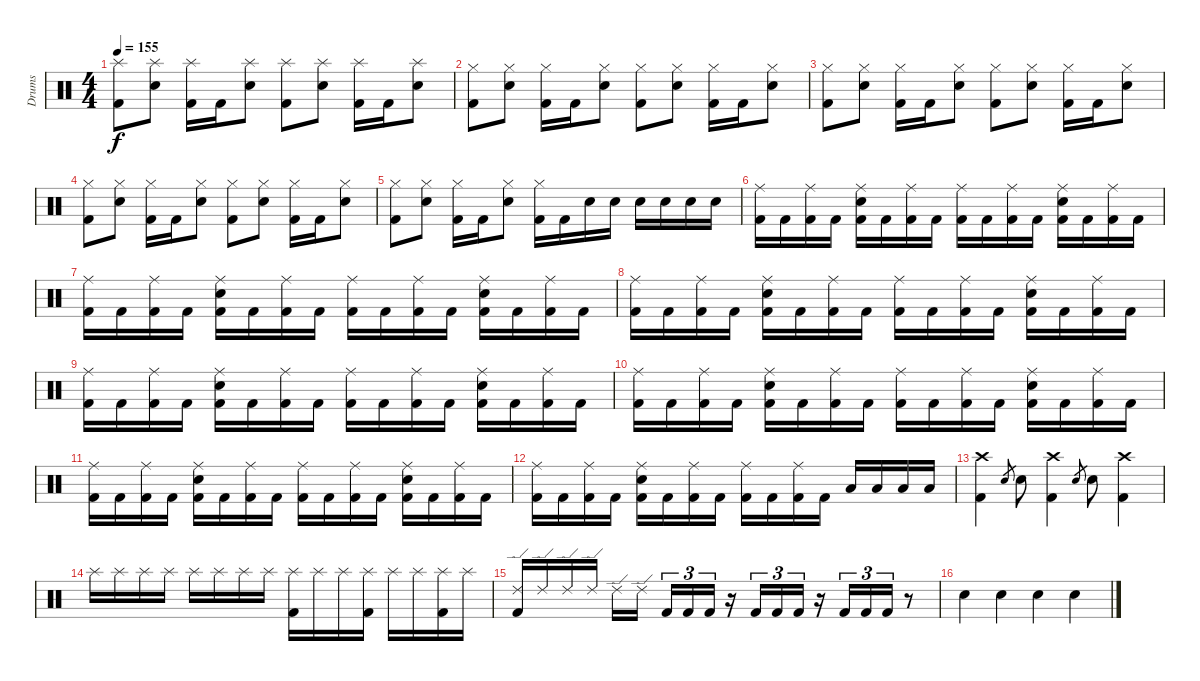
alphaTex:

\track ("Drums" "Drums") {instrument percussion}
\staff {score}
\articulation defaults
\ts (4 4)
\tempo 155
\clef neutral
\ks c
("Splash (hit)" "Kick (hit) 2").8{dy f} ("Splash (hit)" "Snare (hit) 2").8 ("Splash (hit)" "Kick (hit) 2").16 "Kick (hit) 2".16 ("Splash (hit)" "Snare (hit) 2").8 ("Splash (hit)" "Kick (hit) 2").8 ("Splash (hit)" "Snare (hit) 2").8 ("Splash (hit)" "Kick (hit) 2").16 "Kick (hit) 2".16 ("Splash (hit)" "Snare (hit) 2").8 |
("Hi-Hat (closed)" "Kick (hit) 2").8 ("Hi-Hat (closed)" "Snare (hit) 2").8 ("Hi-Hat (closed)" "Kick (hit) 2").16 "Kick (hit) 2".16 ("Hi-Hat (closed)" "Snare (hit) 2").8 ("Hi-Hat (closed)" "Kick (hit) 2").8 ("Hi-Hat (closed)" "Snare (hit) 2").8 ("Hi-Hat (closed)" "Kick (hit) 2").16 "Kick (hit) 2".16 ("Hi-Hat (closed)" "Snare (hit) 2").8 |
("Hi-Hat (closed)" "Kick (hit) 2").8 ("Hi-Hat (closed)" "Snare (hit) 2").8 ("Hi-Hat (closed)" "Kick (hit) 2").16 "Kick (hit) 2".16 ("Hi-Hat (closed)" "Snare (hit) 2").8 ("Hi-Hat (closed)" "Kick (hit) 2").8 ("Hi-Hat (closed)" "Snare (hit) 2").8 ("Hi-Hat (closed)" "Kick (hit) 2").16 "Kick (hit) 2".16 ("Hi-Hat (closed)" "Snare (hit) 2").8 |
("Hi-Hat (closed)" "Kick (hit) 2").8 ("Hi-Hat (closed)" "Snare (hit) 2").8 ("Hi-Hat (closed)" "Kick (hit) 2").16 "Kick (hit) 2".16 ("Hi-Hat (closed)" "Snare (hit) 2").8 ("Hi-Hat (closed)" "Kick (hit) 2").8 ("Hi-Hat (closed)" "Snare (hit) 2").8 ("Hi-Hat (closed)" "Kick (hit) 2").16 "Kick (hit) 2".16 ("Hi-Hat (closed)" "Snare (hit) 2").8 |
("Hi-Hat (closed)" "Kick (hit) 2").8 ("Hi-Hat (closed)" "Snare (hit) 2").8 ("Hi-Hat (closed)" "Kick (hit) 2").16 "Kick (hit) 2".16 ("Hi-Hat (closed)" "Snare (hit) 2").8 ("Hi-Hat (closed)" "Kick (hit) 2").16 "Kick (hit) 2".16 "Snare (hit) 2".16 "Snare (hit) 2".16 "Snare (hit) 2".16 "Snare (hit) 2".16 "Snare (hit) 2".16 "Snare (hit) 2".16 |
("Ride (middle)" "Kick (hit) 2").16 "Kick (hit) 2".16 ("Ride (middle)" "Kick (hit) 2").16 "Kick (hit) 2".16 ("Ride (middle)" "Snare (hit) 2" "Kick (hit) 2").16 "Kick (hit) 2".16 ("Ride (middle)" "Kick (hit) 2").16 "Kick (hit) 2".16 ("Ride (middle)" "Kick (hit) 2").16 "Kick (hit) 2".16 ("Ride (middle)" "Kick (hit) 2").16 "Kick (hit) 2".16 ("Ride (middle)" "Snare (hit) 2" "Kick (hit) 2").16 "Kick (hit) 2".16 ("Ride (middle)" "Kick (hit) 2").16 "Kick (hit) 2".16 |
("Ride (middle)" "Kick (hit) 2").16 "Kick (hit) 2".16 ("Ride (middle)" "Kick (hit) 2").16 "Kick (hit) 2".16 ("Ride (middle)" "Snare (hit) 2" "Kick (hit) 2").16 "Kick (hit) 2".16 ("Ride (middle)" "Kick (hit) 2").16 "Kick (hit) 2".16 ("Ride (middle)" "Kick (hit) 2").16 "Kick (hit) 2".16 ("Ride (middle)" "Kick (hit) 2").16 "Kick (hit) 2".16 ("Ride (middle)" "Snare (hit) 2" "Kick (hit) 2").16 "Kick (hit) 2".16 ("Ride (middle)" "Kick (hit) 2").16 "Kick (hit) 2".16 |
("Ride (middle)" "Kick (hit) 2").16 "Kick (hit) 2".16 ("Ride (middle)" "Kick (hit) 2").16 "Kick (hit) 2".16 ("Ride (middle)" "Snare (hit) 2" "Kick (hit) 2").16 "Kick (hit) 2".16 ("Ride (middle)" "Kick (hit) 2").16 "Kick (hit) 2".16 ("Ride (middle)" "Kick (hit) 2").16 "Kick (hit) 2".16 ("Ride (middle)" "Kick (hit) 2").16 "Kick (hit) 2".16 ("Ride (middle)" "Snare (hit) 2" "Kick (hit) 2").16 "Kick (hit) 2".16 ("Ride (middle)" "Kick (hit) 2").16 "Kick (hit) 2".16 |
("Ride (middle)" "Kick (hit) 2").16 "Kick (hit) 2".16 ("Ride (middle)" "Kick (hit) 2").16 "Kick (hit) 2".16 ("Ride (middle)" "Snare (hit) 2" "Kick (hit) 2").16 "Kick (hit) 2".16 ("Ride (middle)" "Kick (hit) 2").16 "Kick (hit) 2".16 ("Ride (middle)" "Kick (hit) 2").16 "Kick (hit) 2".16 ("Ride (middle)" "Kick (hit) 2").16 "Kick (hit) 2".16 ("Ride (middle)" "Snare (hit) 2" "Kick (hit) 2").16 "Kick (hit) 2".16 ("Ride (middle)" "Kick (hit) 2").16 "Kick (hit) 2".16 |
("Ride (middle)" "Kick (hit) 2").16 "Kick (hit) 2".16 ("Ride (middle)" "Kick (hit) 2").16 "Kick (hit) 2".16 ("Ride (middle)" "Snare (hit) 2" "Kick (hit) 2").16 "Kick (hit) 2".16 ("Ride (middle)" "Kick (hit) 2").16 "Kick (hit) 2".16 ("Ride (middle)" "Kick (hit) 2").16 "Kick (hit) 2".16 ("Ride (middle)" "Kick (hit) 2").16 "Kick (hit) 2".16 ("Ride (middle)" "Snare (hit) 2" "Kick (hit) 2").16 "Kick (hit) 2".16 ("Ride (middle)" "Kick (hit) 2").16 "Kick (hit) 2".16 |
("Ride (middle)" "Kick (hit) 2").16 "Kick (hit) 2".16 ("Ride (middle)" "Kick (hit) 2").16 "Kick (hit) 2".16 ("Ride (middle)" "Snare (hit) 2" "Kick (hit) 2").16 "Kick (hit) 2".16 ("Ride (middle)" "Kick (hit) 2").16 "Kick (hit) 2".16 ("Ride (middle)" "Kick (hit) 2").16 "Kick (hit) 2".16 ("Ride (middle)" "Kick (hit) 2").16 "Kick (hit) 2".16 ("Ride (middle)" "Snare (hit) 2" "Kick (hit) 2").16 "Kick (hit) 2".16 ("Ride (middle)" "Kick (hit) 2").16 "Kick (hit) 2".16 |
("Ride (middle)" "Kick (hit) 2").16 "Kick (hit) 2".16 ("Ride (middle)" "Kick (hit) 2").16 "Kick (hit) 2".16 ("Ride (middle)" "Snare (hit) 2" "Kick (hit) 2").16 "Kick (hit) 2".16 ("Ride (middle)" "Kick (hit) 2").16 "Kick (hit) 2".16 ("Ride (middle)" "Kick (hit) 2").16 "Kick (hit) 2".16 ("Ride (middle)" "Kick (hit) 2").16 "Kick (hit) 2".16 "Low Tom (hit)".16 "Low Tom (hit)".16 "Low Tom (hit)".16 "Low Tom (hit)".16 |
("Crash high (hit)" "Kick (hit) 2").4 "Snare (hit) 2".8{gr} "Snare (hit) 2".8 ("Crash high (hit)" "Kick (hit) 2").4 "Snare (hit) 2".8{gr} "Snare (hit) 2".8 ("Crash high (hit)" "Kick (hit) 2").4 |
"Splash (hit)".16 "Splash (hit)".16 "Splash (hit)".16 "Splash (hit)".16 "Splash (hit)".16 "Splash (hit)".16 "Splash (hit)".16 "Splash (hit)".16 ("Splash (hit)" "Kick (hit) 2").16 "Splash (hit)".16 "Splash (hit)".16 ("Splash (hit)" "Kick (hit) 2").16 "Splash (hit)".16 "Splash (hit)".16 ("Splash (hit)" "Kick (hit) 2").16 "Splash (hit)".16 |
("Ride (edge) 2" "Kick (hit) 2").16 "Ride (edge) 2".16 "Ride (edge) 2".16 "Ride (edge) 2".16 "Ride (edge) 2".16 "Ride (edge) 2".16 "Kick (hit) 2".16{tu (3 2)} "Kick (hit) 2".16{tu (3 2)} "Kick (hit) 2".16{tu (3 2)} r.16 "Kick (hit) 2".16{tu (3 2)} "Kick (hit) 2".16{tu (3 2)} "Kick (hit) 2".16{tu (3 2)} r.16 "Kick (hit) 2".16{tu (3 2)} "Kick (hit) 2".16{tu (3 2)} "Kick (hit) 2".16{tu (3 2)} r.8 |
"Snare (hit) 2".4 "Snare (hit) 2".4 "Snare (hit) 2".4 "Snare (hit) 2".4
